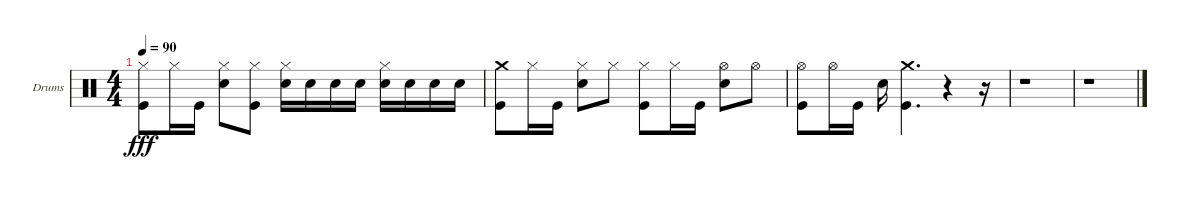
\bracketExtendMode nobrackets
\firstSystemTrackNameOrientation horizontal
\otherSystemsTrackNameOrientation horizontal
\defaultBarNumberDisplay FirstOfSystem
\track ("Drums" "Drums") {instrument percussion}
\staff {score}
\articulation defaults
\ts (4 4)
\tempo 90
\clef neutral
\ks c
("Kick (hit)" "Hi-Hat (closed)").8{dy fff} "Hi-Hat (closed)".16 "Kick (hit)".16 ("Hi-Hat (closed)" "Snare (hit) 2").8 ("Hi-Hat (closed)" "Kick (hit)").8 ("Hi-Hat (closed)" "Snare (hit) 2").16 "Snare (hit) 2".16 "Snare (hit) 2".16 "Snare (hit) 2".16 ("Hi-Hat (closed)" "Snare (hit) 2").16 "Snare (hit) 2".16 "Snare (hit) 2".16 "Snare (hit) 2".16 |
("Kick (hit)" "Crash medium (hit)").8 "Hi-Hat (closed)".16 "Kick (hit)".16 ("Snare (hit) 2" "Hi-Hat (closed)").8 "Hi-Hat (closed)".8 ("Kick (hit)" "Hi-Hat (closed)").8 "Hi-Hat (closed)".16 "Kick (hit)".16 ("Snare (hit) 2" "Hi-Hat (open)").8 "Hi-Hat (open)".8 |
("Hi-Hat (open)" "Kick (hit)").8 "Hi-Hat (open)".16 "Kick (hit)".16 "Snare (hit) 2".16 ("Crash medium (hit)" "Kick (hit)").4{d} r.4 r.16 |
r.1 |
r.1
